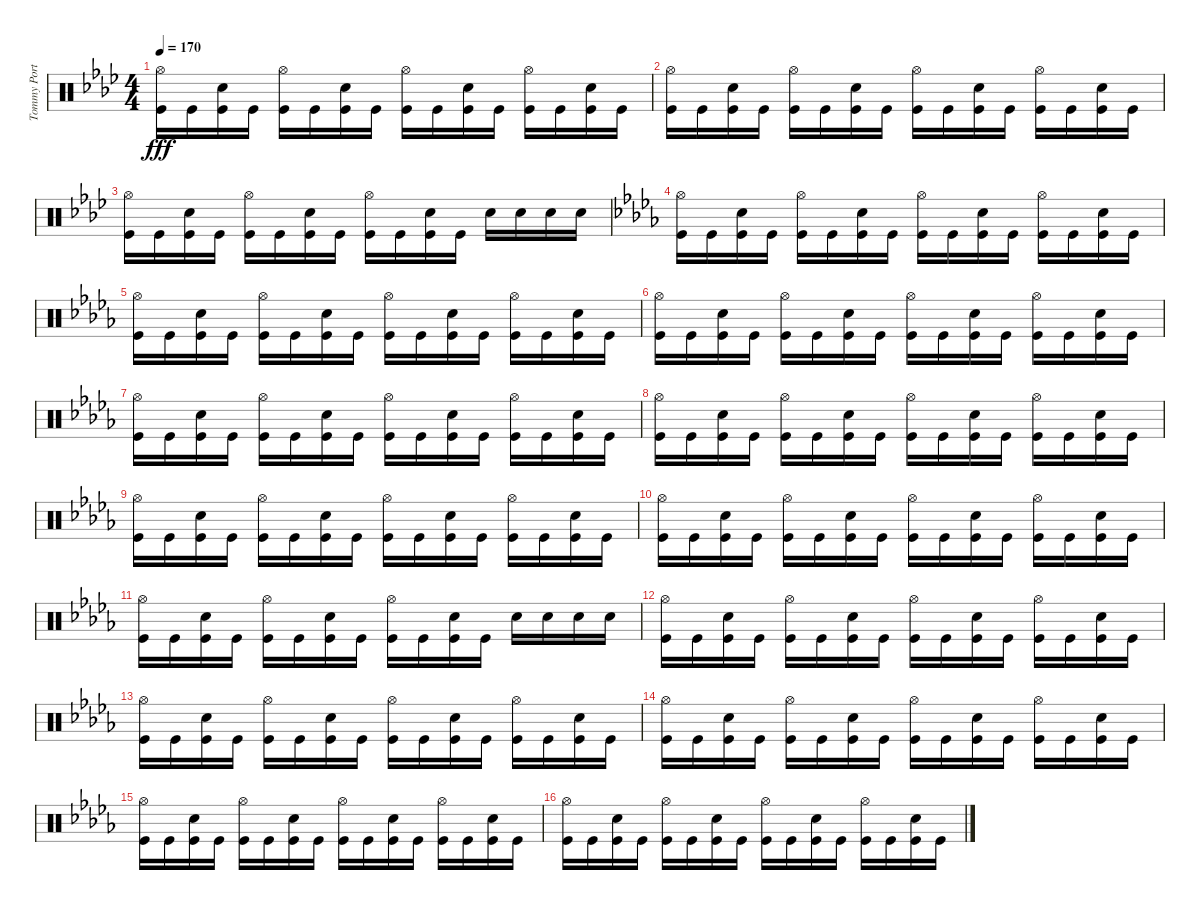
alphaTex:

\track ("Tommy Portimo (Percussion)" "Tommy Port") {instrument percussion}
\staff {score}
\articulation defaults
\ts (4 4)
\tempo 170
\clef neutral
\ks ab
("Kick (hit)" "Hi-Hat (open)").16{dy fff} "Kick (hit)".16 ("Kick (hit)" "Electric Snare (hit)").16 "Kick (hit)".16 ("Kick (hit)" "Hi-Hat (open)").16 "Kick (hit)".16 ("Kick (hit)" "Electric Snare (hit)").16 "Kick (hit)".16 ("Kick (hit)" "Hi-Hat (open)").16 "Kick (hit)".16 ("Kick (hit)" "Electric Snare (hit)").16 "Kick (hit)".16 ("Kick (hit)" "Hi-Hat (open)").16 "Kick (hit)".16 ("Kick (hit)" "Electric Snare (hit)").16 "Kick (hit)".16 |
("Kick (hit)" "Hi-Hat (open)").16 "Kick (hit)".16 ("Kick (hit)" "Electric Snare (hit)").16 "Kick (hit)".16 ("Kick (hit)" "Hi-Hat (open)").16 "Kick (hit)".16 ("Kick (hit)" "Electric Snare (hit)").16 "Kick (hit)".16 ("Kick (hit)" "Hi-Hat (open)").16 "Kick (hit)".16 ("Kick (hit)" "Electric Snare (hit)").16 "Kick (hit)".16 ("Kick (hit)" "Hi-Hat (open)").16 "Kick (hit)".16 ("Kick (hit)" "Electric Snare (hit)").16 "Kick (hit)".16 |
("Kick (hit)" "Hi-Hat (open)").16 "Kick (hit)".16 ("Kick (hit)" "Electric Snare (hit)").16 "Kick (hit)".16 ("Kick (hit)" "Hi-Hat (open)").16 "Kick (hit)".16 ("Kick (hit)" "Electric Snare (hit)").16 "Kick (hit)".16 ("Kick (hit)" "Hi-Hat (open)").16 "Kick (hit)".16 ("Kick (hit)" "Electric Snare (hit)").16 "Kick (hit)".16 "Electric Snare (hit)".16 "Electric Snare (hit)".16 "Electric Snare (hit)".16 "Electric Snare (hit)".16 |
\ks db
("Kick (hit)" "Hi-Hat (open)").16 "Kick (hit)".16 ("Kick (hit)" "Electric Snare (hit)").16 "Kick (hit)".16 ("Kick (hit)" "Hi-Hat (open)").16 "Kick (hit)".16 ("Kick (hit)" "Electric Snare (hit)").16 "Kick (hit)".16 ("Kick (hit)" "Hi-Hat (open)").16 "Kick (hit)".16 ("Kick (hit)" "Electric Snare (hit)").16 "Kick (hit)".16 ("Kick (hit)" "Hi-Hat (open)").16 "Kick (hit)".16 ("Kick (hit)" "Electric Snare (hit)").16 "Kick (hit)".16 |
("Kick (hit)" "Hi-Hat (open)").16 "Kick (hit)".16 ("Kick (hit)" "Electric Snare (hit)").16 "Kick (hit)".16 ("Kick (hit)" "Hi-Hat (open)").16 "Kick (hit)".16 ("Kick (hit)" "Electric Snare (hit)").16 "Kick (hit)".16 ("Kick (hit)" "Hi-Hat (open)").16 "Kick (hit)".16 ("Kick (hit)" "Electric Snare (hit)").16 "Kick (hit)".16 ("Kick (hit)" "Hi-Hat (open)").16 "Kick (hit)".16 ("Kick (hit)" "Electric Snare (hit)").16 "Kick (hit)".16 |
("Kick (hit)" "Hi-Hat (open)").16 "Kick (hit)".16 ("Kick (hit)" "Electric Snare (hit)").16 "Kick (hit)".16 ("Kick (hit)" "Hi-Hat (open)").16 "Kick (hit)".16 ("Kick (hit)" "Electric Snare (hit)").16 "Kick (hit)".16 ("Kick (hit)" "Hi-Hat (open)").16 "Kick (hit)".16 ("Kick (hit)" "Electric Snare (hit)").16 "Kick (hit)".16 ("Kick (hit)" "Hi-Hat (open)").16 "Kick (hit)".16 ("Kick (hit)" "Electric Snare (hit)").16 "Kick (hit)".16 |
("Kick (hit)" "Hi-Hat (open)").16 "Kick (hit)".16 ("Kick (hit)" "Electric Snare (hit)").16 "Kick (hit)".16 ("Kick (hit)" "Hi-Hat (open)").16 "Kick (hit)".16 ("Kick (hit)" "Electric Snare (hit)").16 "Kick (hit)".16 ("Kick (hit)" "Hi-Hat (open)").16 "Kick (hit)".16 ("Kick (hit)" "Electric Snare (hit)").16 "Kick (hit)".16 ("Kick (hit)" "Hi-Hat (open)").16 "Kick (hit)".16 ("Kick (hit)" "Electric Snare (hit)").16 "Kick (hit)".16 |
("Kick (hit)" "Hi-Hat (open)").16 "Kick (hit)".16 ("Kick (hit)" "Electric Snare (hit)").16 "Kick (hit)".16 ("Kick (hit)" "Hi-Hat (open)").16 "Kick (hit)".16 ("Kick (hit)" "Electric Snare (hit)").16 "Kick (hit)".16 ("Kick (hit)" "Hi-Hat (open)").16 "Kick (hit)".16 ("Kick (hit)" "Electric Snare (hit)").16 "Kick (hit)".16 ("Kick (hit)" "Hi-Hat (open)").16 "Kick (hit)".16 ("Kick (hit)" "Electric Snare (hit)").16 "Kick (hit)".16 |
("Kick (hit)" "Hi-Hat (open)").16 "Kick (hit)".16 ("Kick (hit)" "Electric Snare (hit)").16 "Kick (hit)".16 ("Kick (hit)" "Hi-Hat (open)").16 "Kick (hit)".16 ("Kick (hit)" "Electric Snare (hit)").16 "Kick (hit)".16 ("Kick (hit)" "Hi-Hat (open)").16 "Kick (hit)".16 ("Kick (hit)" "Electric Snare (hit)").16 "Kick (hit)".16 ("Kick (hit)" "Hi-Hat (open)").16 "Kick (hit)".16 ("Kick (hit)" "Electric Snare (hit)").16 "Kick (hit)".16 |
("Kick (hit)" "Hi-Hat (open)").16 "Kick (hit)".16 ("Kick (hit)" "Electric Snare (hit)").16 "Kick (hit)".16 ("Kick (hit)" "Hi-Hat (open)").16 "Kick (hit)".16 ("Kick (hit)" "Electric Snare (hit)").16 "Kick (hit)".16 ("Kick (hit)" "Hi-Hat (open)").16 "Kick (hit)".16 ("Kick (hit)" "Electric Snare (hit)").16 "Kick (hit)".16 ("Kick (hit)" "Hi-Hat (open)").16 "Kick (hit)".16 ("Kick (hit)" "Electric Snare (hit)").16 "Kick (hit)".16 |
("Kick (hit)" "Hi-Hat (open)").16 "Kick (hit)".16 ("Kick (hit)" "Electric Snare (hit)").16 "Kick (hit)".16 ("Kick (hit)" "Hi-Hat (open)").16 "Kick (hit)".16 ("Kick (hit)" "Electric Snare (hit)").16 "Kick (hit)".16 ("Kick (hit)" "Hi-Hat (open)").16 "Kick (hit)".16 ("Kick (hit)" "Electric Snare (hit)").16 "Kick (hit)".16 "Electric Snare (hit)".16 "Electric Snare (hit)".16 "Electric Snare (hit)".16 "Electric Snare (hit)".16 |
("Kick (hit)" "Hi-Hat (open)").16 "Kick (hit)".16 ("Kick (hit)" "Electric Snare (hit)").16 "Kick (hit)".16 ("Kick (hit)" "Hi-Hat (open)").16 "Kick (hit)".16 ("Kick (hit)" "Electric Snare (hit)").16 "Kick (hit)".16 ("Kick (hit)" "Hi-Hat (open)").16 "Kick (hit)".16 ("Kick (hit)" "Electric Snare (hit)").16 "Kick (hit)".16 ("Kick (hit)" "Hi-Hat (open)").16 "Kick (hit)".16 ("Kick (hit)" "Electric Snare (hit)").16 "Kick (hit)".16 |
("Kick (hit)" "Hi-Hat (open)").16 "Kick (hit)".16 ("Kick (hit)" "Electric Snare (hit)").16 "Kick (hit)".16 ("Kick (hit)" "Hi-Hat (open)").16 "Kick (hit)".16 ("Kick (hit)" "Electric Snare (hit)").16 "Kick (hit)".16 ("Kick (hit)" "Hi-Hat (open)").16 "Kick (hit)".16 ("Kick (hit)" "Electric Snare (hit)").16 "Kick (hit)".16 ("Kick (hit)" "Hi-Hat (open)").16 "Kick (hit)".16 ("Kick (hit)" "Electric Snare (hit)").16 "Kick (hit)".16 |
("Kick (hit)" "Hi-Hat (open)").16 "Kick (hit)".16 ("Kick (hit)" "Electric Snare (hit)").16 "Kick (hit)".16 ("Kick (hit)" "Hi-Hat (open)").16 "Kick (hit)".16 ("Kick (hit)" "Electric Snare (hit)").16 "Kick (hit)".16 ("Kick (hit)" "Hi-Hat (open)").16 "Kick (hit)".16 ("Kick (hit)" "Electric Snare (hit)").16 "Kick (hit)".16 ("Kick (hit)" "Hi-Hat (open)").16 "Kick (hit)".16 ("Kick (hit)" "Electric Snare (hit)").16 "Kick (hit)".16 |
("Kick (hit)" "Hi-Hat (open)").16 "Kick (hit)".16 ("Kick (hit)" "Electric Snare (hit)").16 "Kick (hit)".16 ("Kick (hit)" "Hi-Hat (open)").16 "Kick (hit)".16 ("Kick (hit)" "Electric Snare (hit)").16 "Kick (hit)".16 ("Kick (hit)" "Hi-Hat (open)").16 "Kick (hit)".16 ("Kick (hit)" "Electric Snare (hit)").16 "Kick (hit)".16 ("Kick (hit)" "Hi-Hat (open)").16 "Kick (hit)".16 ("Kick (hit)" "Electric Snare (hit)").16 "Kick (hit)".16 |
("Kick (hit)" "Hi-Hat (open)").16 "Kick (hit)".16 ("Kick (hit)" "Electric Snare (hit)").16 "Kick (hit)".16 ("Kick (hit)" "Hi-Hat (open)").16 "Kick (hit)".16 ("Kick (hit)" "Electric Snare (hit)").16 "Kick (hit)".16 ("Kick (hit)" "Hi-Hat (open)").16 "Kick (hit)".16 ("Kick (hit)" "Electric Snare (hit)").16 "Kick (hit)".16 ("Kick (hit)" "Hi-Hat (open)").16 "Kick (hit)".16 ("Kick (hit)" "Electric Snare (hit)").16 "Kick (hit)".16
